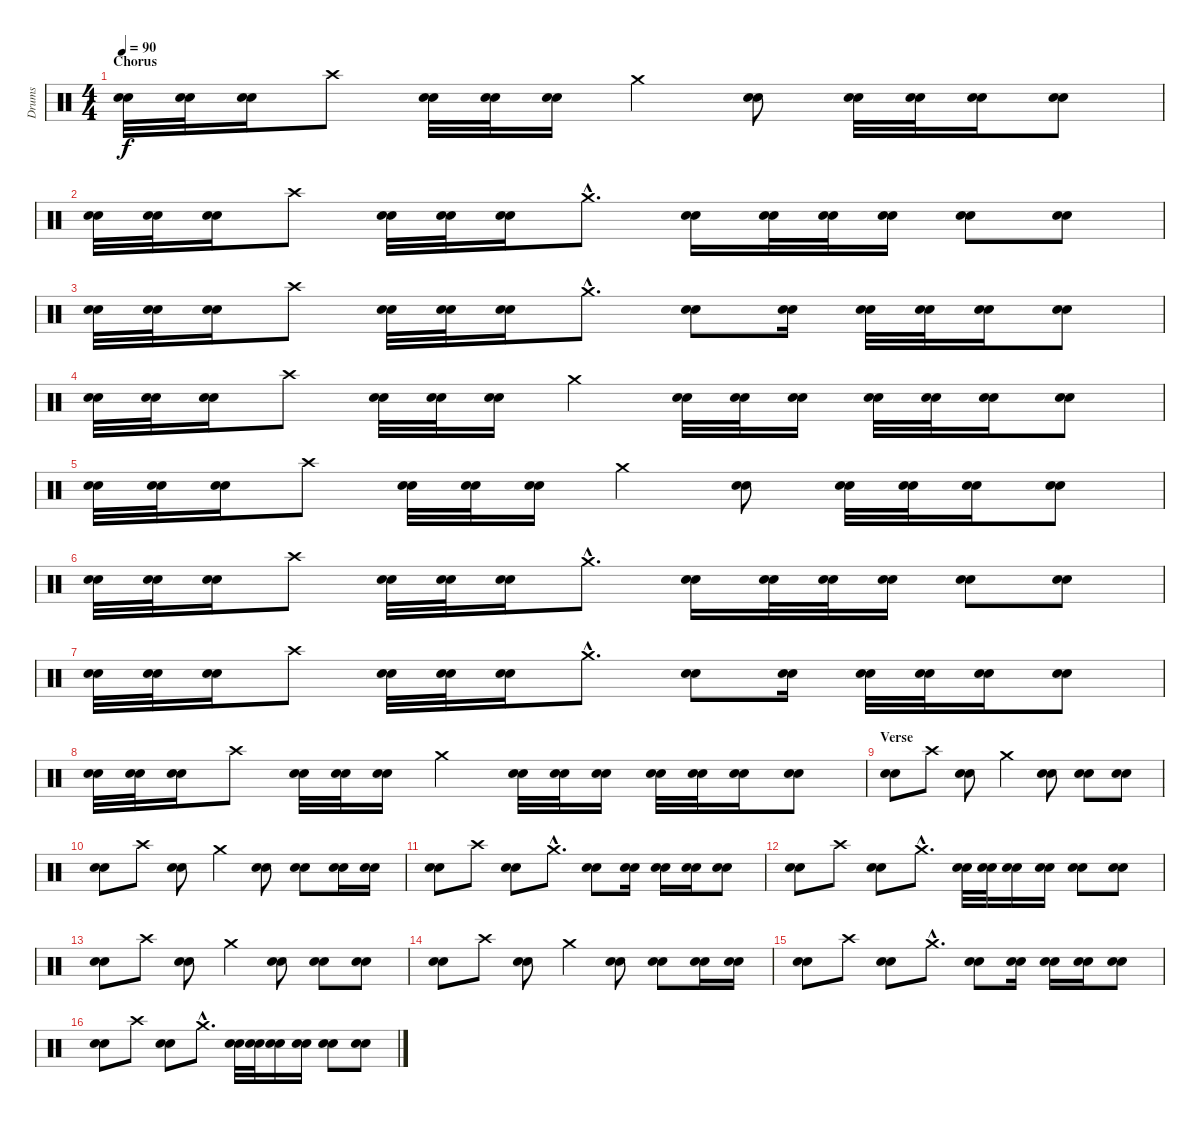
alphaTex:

\track ("Drums" "Drums") {instrument percussion}
\staff {score}
\articulation defaults
\ts (4 4)
\section ("" "Chorus")
\tempo 90
\clef neutral
\ks c
("Electric Snare (hit)" "Snare (hit) 2").32{dy f} ("Electric Snare (hit)" "Snare (hit) 2").32 ("Electric Snare (hit)" "Snare (hit) 2").16 "Crash high (hit)".8 ("Electric Snare (hit)" "Snare (hit) 2").32 ("Electric Snare (hit)" "Snare (hit) 2").32 ("Electric Snare (hit)" "Snare (hit) 2").16 "Crash medium (hit)".4 ("Electric Snare (hit)" "Snare (hit) 2").8 ("Electric Snare (hit)" "Snare (hit) 2").32 ("Electric Snare (hit)" "Snare (hit) 2").32 ("Electric Snare (hit)" "Snare (hit) 2").16 ("Electric Snare (hit)" "Snare (hit) 2").8 |
("Electric Snare (hit)" "Snare (hit) 2").32 ("Electric Snare (hit)" "Snare (hit) 2").32 ("Electric Snare (hit)" "Snare (hit) 2").16 "Crash high (hit)".8 ("Electric Snare (hit)" "Snare (hit) 2").32 ("Electric Snare (hit)" "Snare (hit) 2").32 ("Electric Snare (hit)" "Snare (hit) 2").16 "Crash medium (hit)"{hac}.8{d} ("Electric Snare (hit)" "Snare (hit) 2").16 ("Electric Snare (hit)" "Snare (hit) 2").32 ("Electric Snare (hit)" "Snare (hit) 2").32 ("Electric Snare (hit)" "Snare (hit) 2").16 ("Electric Snare (hit)" "Snare (hit) 2").8 ("Electric Snare (hit)" "Snare (hit) 2").8 |
("Electric Snare (hit)" "Snare (hit) 2").32 ("Electric Snare (hit)" "Snare (hit) 2").32 ("Electric Snare (hit)" "Snare (hit) 2").16 "Crash high (hit)".8 ("Electric Snare (hit)" "Snare (hit) 2").32 ("Electric Snare (hit)" "Snare (hit) 2").32 ("Electric Snare (hit)" "Snare (hit) 2").16 "Crash medium (hit)"{hac}.8{d} ("Electric Snare (hit)" "Snare (hit) 2").8 ("Electric Snare (hit)" "Snare (hit) 2").16 ("Electric Snare (hit)" "Snare (hit) 2").32 ("Electric Snare (hit)" "Snare (hit) 2").32 ("Electric Snare (hit)" "Snare (hit) 2").16 ("Electric Snare (hit)" "Snare (hit) 2").8 |
("Electric Snare (hit)" "Snare (hit) 2").32 ("Electric Snare (hit)" "Snare (hit) 2").32 ("Electric Snare (hit)" "Snare (hit) 2").16 "Crash high (hit)".8 ("Electric Snare (hit)" "Snare (hit) 2").32 ("Electric Snare (hit)" "Snare (hit) 2").32 ("Electric Snare (hit)" "Snare (hit) 2").16 "Crash medium (hit)".4 ("Electric Snare (hit)" "Snare (hit) 2").32 ("Electric Snare (hit)" "Snare (hit) 2").32 ("Electric Snare (hit)" "Snare (hit) 2").16 ("Electric Snare (hit)" "Snare (hit) 2").32 ("Electric Snare (hit)" "Snare (hit) 2").32 ("Electric Snare (hit)" "Snare (hit) 2").16 ("Electric Snare (hit)" "Snare (hit) 2").8 |
("Electric Snare (hit)" "Snare (hit) 2").32 ("Electric Snare (hit)" "Snare (hit) 2").32 ("Electric Snare (hit)" "Snare (hit) 2").16 "Crash high (hit)".8 ("Electric Snare (hit)" "Snare (hit) 2").32 ("Electric Snare (hit)" "Snare (hit) 2").32 ("Electric Snare (hit)" "Snare (hit) 2").16 "Crash medium (hit)".4 ("Electric Snare (hit)" "Snare (hit) 2").8 ("Electric Snare (hit)" "Snare (hit) 2").32 ("Electric Snare (hit)" "Snare (hit) 2").32 ("Electric Snare (hit)" "Snare (hit) 2").16 ("Electric Snare (hit)" "Snare (hit) 2").8 |
("Electric Snare (hit)" "Snare (hit) 2").32 ("Electric Snare (hit)" "Snare (hit) 2").32 ("Electric Snare (hit)" "Snare (hit) 2").16 "Crash high (hit)".8 ("Electric Snare (hit)" "Snare (hit) 2").32 ("Electric Snare (hit)" "Snare (hit) 2").32 ("Electric Snare (hit)" "Snare (hit) 2").16 "Crash medium (hit)"{hac}.8{d} ("Electric Snare (hit)" "Snare (hit) 2").16 ("Electric Snare (hit)" "Snare (hit) 2").32 ("Electric Snare (hit)" "Snare (hit) 2").32 ("Electric Snare (hit)" "Snare (hit) 2").16 ("Electric Snare (hit)" "Snare (hit) 2").8 ("Electric Snare (hit)" "Snare (hit) 2").8 |
("Electric Snare (hit)" "Snare (hit) 2").32 ("Electric Snare (hit)" "Snare (hit) 2").32 ("Electric Snare (hit)" "Snare (hit) 2").16 "Crash high (hit)".8 ("Electric Snare (hit)" "Snare (hit) 2").32 ("Electric Snare (hit)" "Snare (hit) 2").32 ("Electric Snare (hit)" "Snare (hit) 2").16 "Crash medium (hit)"{hac}.8{d} ("Electric Snare (hit)" "Snare (hit) 2").8 ("Electric Snare (hit)" "Snare (hit) 2").16 ("Electric Snare (hit)" "Snare (hit) 2").32 ("Electric Snare (hit)" "Snare (hit) 2").32 ("Electric Snare (hit)" "Snare (hit) 2").16 ("Electric Snare (hit)" "Snare (hit) 2").8 |
("Electric Snare (hit)" "Snare (hit) 2").32 ("Electric Snare (hit)" "Snare (hit) 2").32 ("Electric Snare (hit)" "Snare (hit) 2").16 "Crash high (hit)".8 ("Electric Snare (hit)" "Snare (hit) 2").32 ("Electric Snare (hit)" "Snare (hit) 2").32 ("Electric Snare (hit)" "Snare (hit) 2").16 "Crash medium (hit)".4 ("Electric Snare (hit)" "Snare (hit) 2").32 ("Electric Snare (hit)" "Snare (hit) 2").32 ("Electric Snare (hit)" "Snare (hit) 2").16 ("Electric Snare (hit)" "Snare (hit) 2").32 ("Electric Snare (hit)" "Snare (hit) 2").32 ("Electric Snare (hit)" "Snare (hit) 2").16 ("Electric Snare (hit)" "Snare (hit) 2").8 |
\section ("" "Verse")
("Electric Snare (hit)" "Snare (hit) 2").8 "Crash high (hit)".8 ("Electric Snare (hit)" "Snare (hit) 2").8 "Crash medium (hit)".4 ("Electric Snare (hit)" "Snare (hit) 2").8 ("Electric Snare (hit)" "Snare (hit) 2").8 ("Electric Snare (hit)" "Snare (hit) 2").8 |
("Electric Snare (hit)" "Snare (hit) 2").8 "Crash high (hit)".8 ("Electric Snare (hit)" "Snare (hit) 2").8 "Crash medium (hit)".4 ("Electric Snare (hit)" "Snare (hit) 2").8 ("Electric Snare (hit)" "Snare (hit) 2").8 ("Electric Snare (hit)" "Snare (hit) 2").16 ("Electric Snare (hit)" "Snare (hit) 2").16 |
("Electric Snare (hit)" "Snare (hit) 2").8 "Crash high (hit)".8 ("Electric Snare (hit)" "Snare (hit) 2").8 "Crash medium (hit)"{hac}.8{d} ("Electric Snare (hit)" "Snare (hit) 2").8 ("Electric Snare (hit)" "Snare (hit) 2").16 ("Electric Snare (hit)" "Snare (hit) 2").16 ("Electric Snare (hit)" "Snare (hit) 2").16 ("Electric Snare (hit)" "Snare (hit) 2").8 |
("Electric Snare (hit)" "Snare (hit) 2").8 "Crash high (hit)".8 ("Electric Snare (hit)" "Snare (hit) 2").8 "Crash medium (hit)"{hac}.8{d} ("Electric Snare (hit)" "Snare (hit) 2").32 ("Electric Snare (hit)" "Snare (hit) 2").32 ("Electric Snare (hit)" "Snare (hit) 2").16 ("Electric Snare (hit)" "Snare (hit) 2").16 ("Electric Snare (hit)" "Snare (hit) 2").8 ("Electric Snare (hit)" "Snare (hit) 2").8 |
("Electric Snare (hit)" "Snare (hit) 2").8 "Crash high (hit)".8 ("Electric Snare (hit)" "Snare (hit) 2").8 "Crash medium (hit)".4 ("Electric Snare (hit)" "Snare (hit) 2").8 ("Electric Snare (hit)" "Snare (hit) 2").8 ("Electric Snare (hit)" "Snare (hit) 2").8 |
("Electric Snare (hit)" "Snare (hit) 2").8 "Crash high (hit)".8 ("Electric Snare (hit)" "Snare (hit) 2").8 "Crash medium (hit)".4 ("Electric Snare (hit)" "Snare (hit) 2").8 ("Electric Snare (hit)" "Snare (hit) 2").8 ("Electric Snare (hit)" "Snare (hit) 2").16 ("Electric Snare (hit)" "Snare (hit) 2").16 |
("Electric Snare (hit)" "Snare (hit) 2").8 "Crash high (hit)".8 ("Electric Snare (hit)" "Snare (hit) 2").8 "Crash medium (hit)"{hac}.8{d} ("Electric Snare (hit)" "Snare (hit) 2").8 ("Electric Snare (hit)" "Snare (hit) 2").16 ("Electric Snare (hit)" "Snare (hit) 2").16 ("Electric Snare (hit)" "Snare (hit) 2").16 ("Electric Snare (hit)" "Snare (hit) 2").8 |
("Electric Snare (hit)" "Snare (hit) 2").8 "Crash high (hit)".8 ("Electric Snare (hit)" "Snare (hit) 2").8 "Crash medium (hit)"{hac}.8{d} ("Electric Snare (hit)" "Snare (hit) 2").32 ("Electric Snare (hit)" "Snare (hit) 2").32 ("Electric Snare (hit)" "Snare (hit) 2").16 ("Electric Snare (hit)" "Snare (hit) 2").16 ("Electric Snare (hit)" "Snare (hit) 2").8 ("Electric Snare (hit)" "Snare (hit) 2").8
